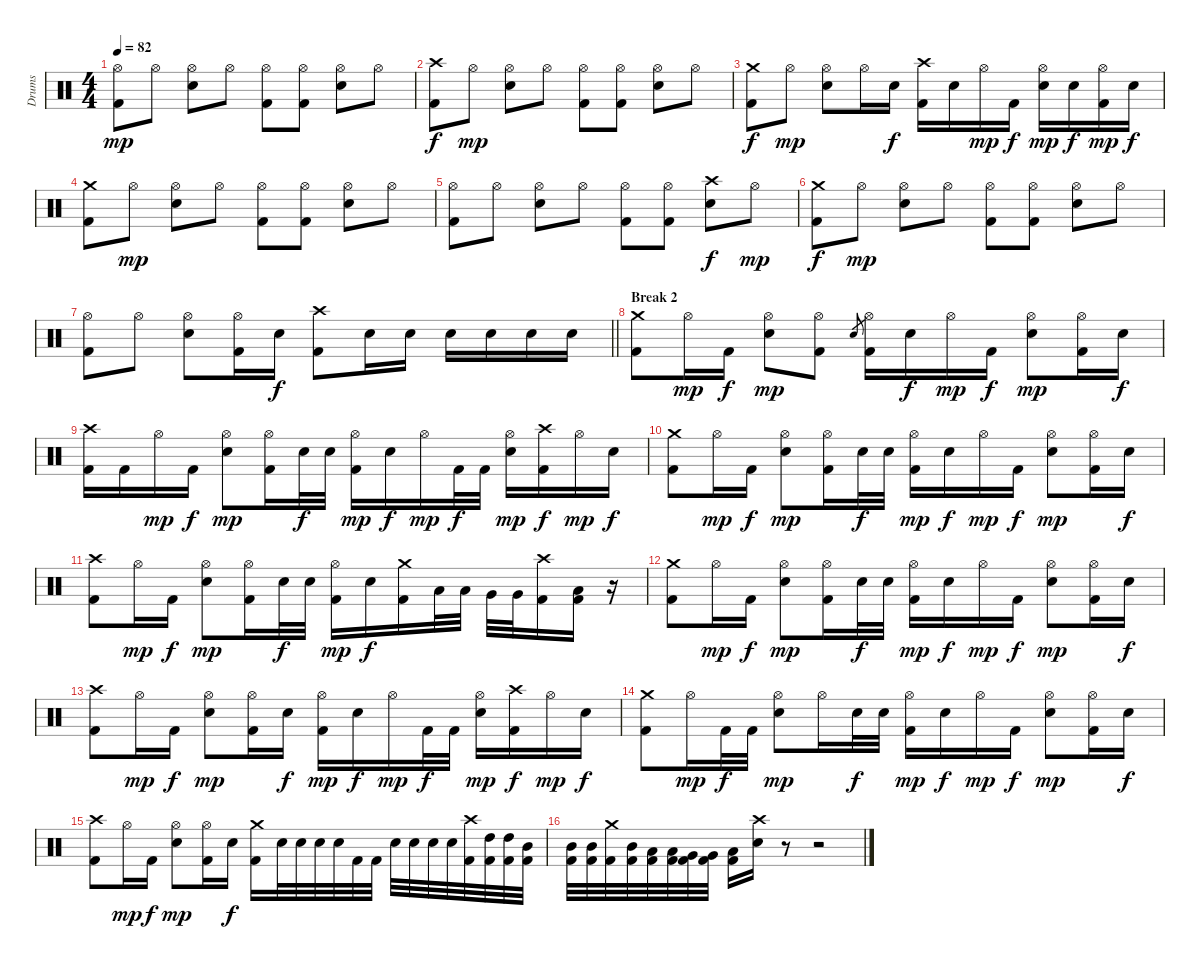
\track ("Drums" "Drums") {instrument percussion}
\staff {score}
\articulation defaults
\ts (4 4)
\tempo 82
\clef neutral
\ks c
("Hi-Hat (open)" "Kick (hit) 2").8{dy mp} "Hi-Hat (open)".8 ("Hi-Hat (open)" "Snare (hit) 2").8 "Hi-Hat (open)".8 ("Hi-Hat (open)" "Kick (hit) 2").8 ("Hi-Hat (open)" "Kick (hit) 2").8 ("Hi-Hat (open)" "Snare (hit) 2").8 "Hi-Hat (open)".8 |
("Crash high (hit)" "Kick (hit) 2").8{dy f} "Hi-Hat (open)".8{dy mp} ("Hi-Hat (open)" "Snare (hit) 2").8 "Hi-Hat (open)".8 ("Hi-Hat (open)" "Kick (hit) 2").8 ("Hi-Hat (open)" "Kick (hit) 2").8 ("Hi-Hat (open)" "Snare (hit) 2").8 "Hi-Hat (open)".8 |
("Crash medium (hit)" "Kick (hit) 2").8{dy f} "Hi-Hat (open)".8{dy mp} ("Hi-Hat (open)" "Snare (hit) 2").8 "Hi-Hat (open)".16 "Snare (hit) 2".16{dy f} ("Crash high (hit)" "Kick (hit) 2").16 "Snare (hit) 2".16 "Hi-Hat (open)".16{dy mp} "Kick (hit) 2".16{dy f} ("Hi-Hat (open)" "Snare (hit) 2").16{dy mp} "Snare (hit) 2".16{dy f} ("Hi-Hat (open)" "Kick (hit) 2").16{dy mp} "Snare (hit) 2".16{dy f} |
("Crash medium (hit)" "Kick (hit) 2").8 "Hi-Hat (open)".8{dy mp} ("Hi-Hat (open)" "Snare (hit) 2").8 "Hi-Hat (open)".8 ("Hi-Hat (open)" "Kick (hit) 2").8 ("Hi-Hat (open)" "Kick (hit) 2").8 ("Hi-Hat (open)" "Snare (hit) 2").8 "Hi-Hat (open)".8 |
("Hi-Hat (open)" "Kick (hit) 2").8 "Hi-Hat (open)".8 ("Hi-Hat (open)" "Snare (hit) 2").8 "Hi-Hat (open)".8 ("Hi-Hat (open)" "Kick (hit) 2").8 ("Hi-Hat (open)" "Kick (hit) 2").8 ("Crash high (hit)" "Snare (hit) 2").8{dy f} "Hi-Hat (open)".8{dy mp} |
("Crash medium (hit)" "Kick (hit) 2").8{dy f} "Hi-Hat (open)".8{dy mp} ("Hi-Hat (open)" "Snare (hit) 2").8 "Hi-Hat (open)".8 ("Hi-Hat (open)" "Kick (hit) 2").8 ("Hi-Hat (open)" "Kick (hit) 2").8 ("Hi-Hat (open)" "Snare (hit) 2").8 "Hi-Hat (open)".8 |
\barLineRight lightlight
("Hi-Hat (open)" "Kick (hit) 2").8 "Hi-Hat (open)".8 ("Hi-Hat (open)" "Snare (hit) 2").8 ("Hi-Hat (open)" "Kick (hit) 2").16 "Snare (hit) 2".16{dy f} ("Crash high (hit)" "Kick (hit) 2").8 "Snare (hit) 2".16 "Snare (hit) 2".16 "Snare (hit) 2".16 "Snare (hit) 2".16 "Snare (hit) 2".16 "Snare (hit) 2".16 |
\section ("" "Break 2")
("Crash medium (hit)" "Kick (hit) 2").8 "Hi-Hat (open)".16{dy mp} "Kick (hit) 2".16{dy f} ("Hi-Hat (open)" "Snare (hit) 2").8{dy mp} ("Hi-Hat (open)" "Kick (hit) 2").8 "Snare (hit) 2".8{gr} ("Hi-Hat (open)" "Kick (hit) 2").16 "Snare (hit) 2".16{dy f} "Hi-Hat (open)".16{dy mp} "Kick (hit) 2".16{dy f} ("Hi-Hat (open)" "Snare (hit) 2").8{dy mp} ("Hi-Hat (open)" "Kick (hit) 2").16 "Snare (hit) 2".16{dy f} |
("Crash high (hit)" "Kick (hit) 2").16 "Kick (hit) 2".16 "Hi-Hat (open)".16{dy mp} "Kick (hit) 2".16{dy f} ("Hi-Hat (open)" "Snare (hit) 2").8{dy mp} ("Hi-Hat (open)" "Kick (hit) 2").16 "Snare (hit) 2".32{dy f} "Snare (hit) 2".32 ("Hi-Hat (open)" "Kick (hit) 2").16{dy mp} "Snare (hit) 2".16{dy f} "Hi-Hat (open)".16{dy mp} "Kick (hit) 2".32{dy f} "Kick (hit) 2".32 ("Hi-Hat (open)" "Snare (hit) 2").16{dy mp} ("Crash high (hit)" "Kick (hit) 2").16{dy f} "Hi-Hat (open)".16{dy mp} "Snare (hit) 2".16{dy f} |
("Crash medium (hit)" "Kick (hit) 2").8 "Hi-Hat (open)".16{dy mp} "Kick (hit) 2".16{dy f} ("Hi-Hat (open)" "Snare (hit) 2").8{dy mp} ("Hi-Hat (open)" "Kick (hit) 2").16 "Snare (hit) 2".32{dy f} "Snare (hit) 2".32 ("Hi-Hat (open)" "Kick (hit) 2").16{dy mp} "Snare (hit) 2".16{dy f} "Hi-Hat (open)".16{dy mp} "Kick (hit) 2".16{dy f} ("Hi-Hat (open)" "Snare (hit) 2").8{dy mp} ("Hi-Hat (open)" "Kick (hit) 2").16 "Snare (hit) 2".16{dy f} |
("Crash high (hit)" "Kick (hit) 2").8 "Hi-Hat (open)".16{dy mp} "Kick (hit) 2".16{dy f} ("Hi-Hat (open)" "Snare (hit) 2").8{dy mp} ("Hi-Hat (open)" "Kick (hit) 2").16 "Snare (hit) 2".32{dy f} "Snare (hit) 2".32 ("Hi-Hat (open)" "Kick (hit) 2").16{dy mp} "Snare (hit) 2".16{dy f} ("Crash medium (hit)" "Kick (hit) 2").16 "Low Tom (hit)".32 "Low Tom (hit)".32 "Very Low Tom (hit)".32 "Very Low Tom (hit)".32 ("Crash high (hit)" "Kick (hit) 2").16 ("Low Floor Tom (hit)" "Kick (hit) 2").16 r.16 |
("Crash medium (hit)" "Kick (hit) 2").8 "Hi-Hat (open)".16{dy mp} "Kick (hit) 2".16{dy f} ("Hi-Hat (open)" "Snare (hit) 2").8{dy mp} ("Hi-Hat (open)" "Kick (hit) 2").16 "Snare (hit) 2".32{dy f} "Snare (hit) 2".32 ("Hi-Hat (open)" "Kick (hit) 2").16{dy mp} "Snare (hit) 2".16{dy f} "Hi-Hat (open)".16{dy mp} "Kick (hit) 2".16{dy f} ("Hi-Hat (open)" "Snare (hit) 2").8{dy mp} ("Hi-Hat (open)" "Kick (hit) 2").16 "Snare (hit) 2".16{dy f} |
("Crash high (hit)" "Kick (hit) 2").8 "Hi-Hat (open)".16{dy mp} "Kick (hit) 2".16{dy f} ("Hi-Hat (open)" "Snare (hit) 2").8{dy mp} ("Hi-Hat (open)" "Kick (hit) 2").16 "Snare (hit) 2".16{dy f} ("Hi-Hat (open)" "Kick (hit) 2").16{dy mp} "Snare (hit) 2".16{dy f} "Hi-Hat (open)".16{dy mp} "Kick (hit) 2".32{dy f} "Kick (hit) 2".32 ("Hi-Hat (open)" "Snare (hit) 2").16{dy mp} ("Crash high (hit)" "Kick (hit) 2").16{dy f} "Hi-Hat (open)".16{dy mp} "Snare (hit) 2".16{dy f} |
("Crash medium (hit)" "Kick (hit) 2").8 "Hi-Hat (open)".16{dy mp} "Kick (hit) 2".32{dy f} "Kick (hit) 2".32 ("Hi-Hat (open)" "Snare (hit) 2").8{dy mp} "Hi-Hat (open)".16 "Snare (hit) 2".32{dy f} "Snare (hit) 2".32 ("Hi-Hat (open)" "Kick (hit) 2").16{dy mp} "Snare (hit) 2".16{dy f} "Hi-Hat (open)".16{dy mp} "Kick (hit) 2".16{dy f} ("Hi-Hat (open)" "Snare (hit) 2").8{dy mp} ("Hi-Hat (open)" "Kick (hit) 2").16 "Snare (hit) 2".16{dy f} |
("Crash high (hit)" "Kick (hit) 2").8 "Hi-Hat (open)".16{dy mp} "Kick (hit) 2".16{dy f} ("Hi-Hat (open)" "Snare (hit) 2").8{dy mp} ("Hi-Hat (open)" "Kick (hit) 2").16 "Snare (hit) 2".16{dy f} ("Crash medium (hit)" "Kick (hit) 2").16 "Snare (hit) 2".32 "Snare (hit) 2".32 "Snare (hit) 2".32 "Snare (hit) 2".32 "Kick (hit) 2".32 "Kick (hit) 2".32 "Snare (hit) 2".32 "Snare (hit) 2".32 "Snare (hit) 2".32 "Snare (hit) 2".32 ("Crash high (hit)" "Kick (hit) 2").32 ("High Tom (hit)" "Kick (hit) 2").32 ("High Tom (hit)" "Kick (hit) 2").32 ("Mid Tom (hit)" "Kick (hit) 2").32 |
("Mid Tom (hit)" "Kick (hit) 2").32 ("Mid Tom (hit)" "Kick (hit) 2").32 ("Crash medium (hit)" "Kick (hit) 2").32 ("Mid Tom (hit)" "Kick (hit) 2").32 ("Low Tom (hit)" "Kick (hit) 2").32 ("Low Tom (hit)" "Kick (hit) 2").32 ("Very Low Tom (hit)" "Kick (hit) 2").32 ("Very Low Tom (hit)" "Kick (hit) 2").32 ("Low Floor Tom (hit)" "Kick (hit) 2").16 ("Crash high (hit)" "Snare (hit) 2").16 r.8 r.2
